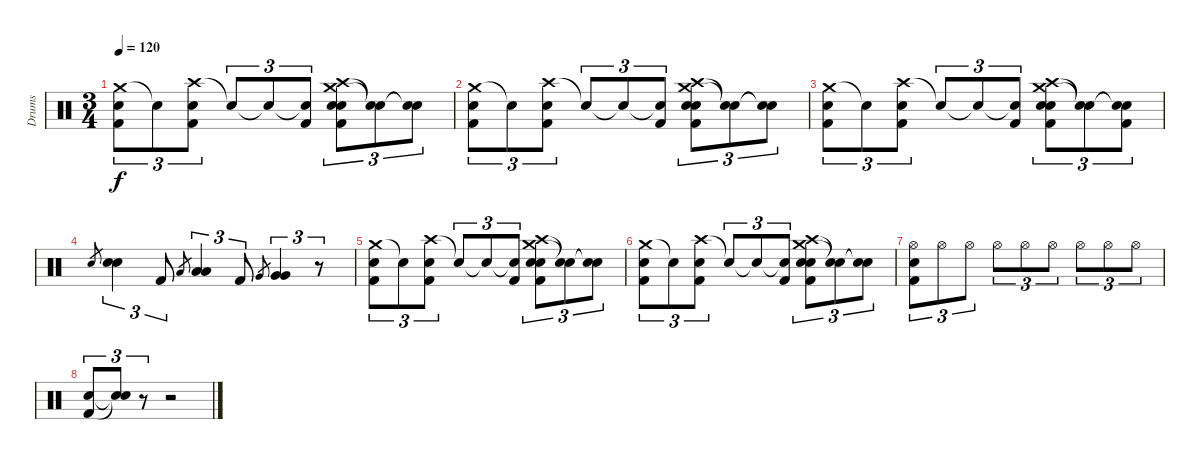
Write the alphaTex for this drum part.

\track ("Drums" "Drums") {instrument percussion}
\staff {score}
\articulation defaults
\ts (3 4)
\tempo 120
\clef neutral
\ks c
("Crash medium (hit)" "Snare (hit) 2" "Kick (hit) 2").8{tu (3 2) dy f} "Snare (hit)"{t}.8{tu (3 2)} ("Crash high (hit)" "Snare (hit) 2" "Kick (hit) 2").8{tu (3 2)} "Snare (hit)"{t}.8{tu (3 2)} "Snare (hit)"{t}.8{tu (3 2)} ("Snare (hit)"{t} "Kick (hit) 2").8{tu (3 2)} ("Crash medium (hit)" "Crash high (hit)" "Snare (hit) 2" "Electric Snare (hit)" "Kick (hit) 2").8{tu (3 2)} ("Snare (hit)"{t} "Snare (hit)"{t}).8{tu (3 2)} ("Snare (hit)"{t} "Snare (hit)"{t}).8{tu (3 2)} |
("Crash medium (hit)" "Snare (hit) 2" "Kick (hit) 2").8{tu (3 2)} "Snare (hit)"{t}.8{tu (3 2)} ("Crash high (hit)" "Snare (hit) 2" "Kick (hit) 2").8{tu (3 2)} "Snare (hit)"{t}.8{tu (3 2)} "Snare (hit)"{t}.8{tu (3 2)} ("Snare (hit)"{t} "Kick (hit) 2").8{tu (3 2)} ("Crash medium (hit)" "Crash high (hit)" "Snare (hit) 2" "Electric Snare (hit)" "Kick (hit) 2").8{tu (3 2)} ("Snare (hit)"{t} "Snare (hit)"{t}).8{tu (3 2)} ("Snare (hit)"{t} "Snare (hit)"{t}).8{tu (3 2)} |
("Crash medium (hit)" "Snare (hit) 2" "Kick (hit) 2").8{tu (3 2)} "Snare (hit)"{t}.8{tu (3 2)} ("Crash high (hit)" "Snare (hit) 2" "Kick (hit) 2").8{tu (3 2)} "Snare (hit)"{t}.8{tu (3 2)} "Snare (hit)"{t}.8{tu (3 2)} ("Snare (hit)"{t} "Kick (hit) 2").8{tu (3 2)} ("Crash medium (hit)" "Crash high (hit)" "Snare (hit) 2" "Electric Snare (hit)" "Kick (hit) 2").8{tu (3 2)} ("Snare (hit)"{t} "Snare (hit)"{t}).8{tu (3 2)} ("Snare (hit)"{t} "Snare (hit)"{t} "Kick (hit) 2").8{tu (3 2)} |
"Electric Snare (hit)".8{gr} ("Electric Snare (hit)" "Electric Snare (hit)").4{tu (3 2)} "Kick (hit) 2".8{tu (3 2)} "Low Tom (hit)".8{gr} ("Low Tom (hit)" "Low Tom (hit)").4{tu (3 2)} "Kick (hit) 2".8{tu (3 2)} "Very Low Tom (hit)".8{gr} ("Very Low Tom (hit)" "Very Low Tom (hit)").4{tu (3 2)} r.8{tu (3 2)} |
("Crash medium (hit)" "Snare (hit) 2" "Kick (hit) 2").8{tu (3 2)} "Snare (hit)"{t}.8{tu (3 2)} ("Crash high (hit)" "Snare (hit) 2" "Kick (hit) 2").8{tu (3 2)} "Snare (hit)"{t}.8{tu (3 2)} "Snare (hit)"{t}.8{tu (3 2)} ("Snare (hit)"{t} "Kick (hit) 2").8{tu (3 2)} ("Crash medium (hit)" "Crash high (hit)" "Snare (hit) 2" "Electric Snare (hit)" "Kick (hit) 2").8{tu (3 2)} ("Snare (hit)"{t} "Snare (hit)"{t}).8{tu (3 2)} ("Snare (hit)"{t} "Snare (hit)"{t}).8{tu (3 2)} |
("Crash medium (hit)" "Snare (hit) 2" "Kick (hit) 2").8{tu (3 2)} "Snare (hit)"{t}.8{tu (3 2)} ("Crash high (hit)" "Snare (hit) 2" "Kick (hit) 2").8{tu (3 2)} "Snare (hit)"{t}.8{tu (3 2)} "Snare (hit)"{t}.8{tu (3 2)} ("Snare (hit)"{t} "Kick (hit) 2").8{tu (3 2)} ("Crash medium (hit)" "Crash high (hit)" "Snare (hit) 2" "Electric Snare (hit)" "Kick (hit) 2").8{tu (3 2)} ("Snare (hit)"{t} "Snare (hit)"{t}).8{tu (3 2)} ("Snare (hit)"{t} "Snare (hit)"{t}).8{tu (3 2)} |
("Hi-Hat (open)" "Snare (hit) 2" "Kick (hit) 2").8{tu (3 2)} "Hi-Hat (open)".8{tu (3 2)} "Hi-Hat (open)".8{tu (3 2)} "Hi-Hat (open)".8{tu (3 2)} "Hi-Hat (open)".8{tu (3 2)} "Hi-Hat (open)".8{tu (3 2)} "Hi-Hat (open)".8{tu (3 2)} "Hi-Hat (open)".8{tu (3 2)} "Hi-Hat (open)".8{tu (3 2)} |
("Snare (hit) 2" "Kick (hit) 2").8{tu (3 2)} ("Snare (hit)"{t} "Snare (hit)"{t}).8{tu (3 2)} r.8{tu (3 2)} r.2
